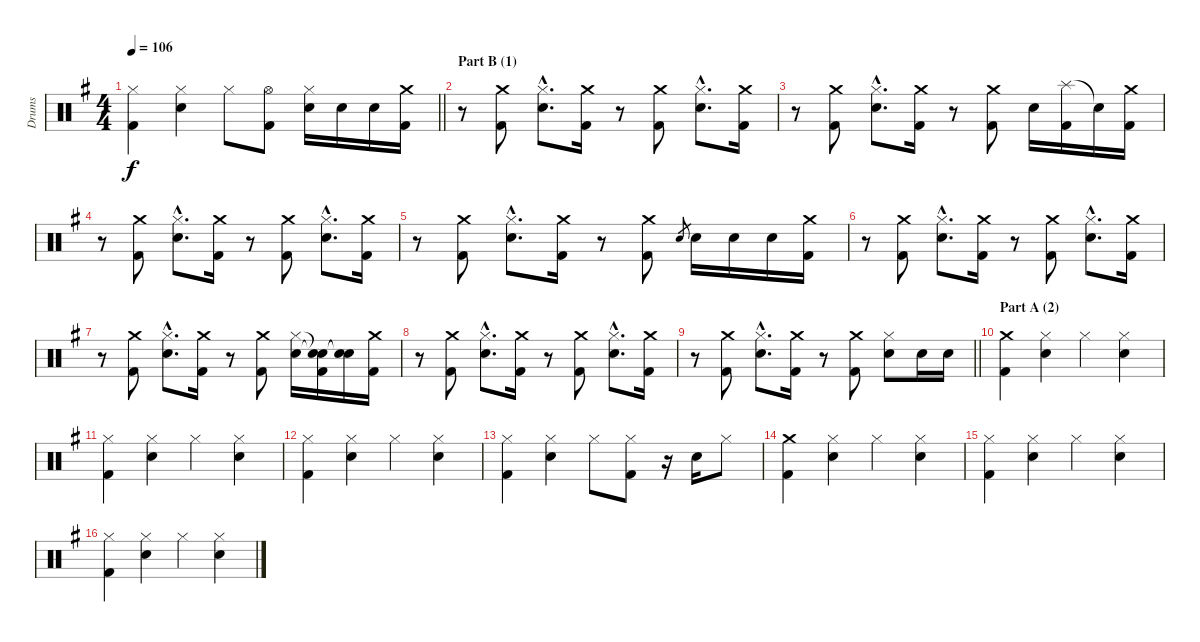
\track ("Drums" "Drums") {instrument percussion}
\staff {score}
\articulation defaults
\ts (4 4)
\tempo 106
\clef neutral
\barLineRight lightlight
\ks g
("Hi-Hat (closed)" "Kick (hit) 2").4{dy f} ("Hi-Hat (closed)" "Electric Snare (hit)").4 "Hi-Hat (closed)".8 ("Hi-Hat (open)" "Kick (hit) 2").8 ("Hi-Hat (closed)" "Electric Snare (hit)").16 "Electric Snare (hit)".16 "Electric Snare (hit)".16 ("Crash medium (hit)" "Kick (hit) 2").16 |
\section ("" "Part B (1)")
r.8 ("Crash medium (hit)" "Kick (hit) 2").8 ("Hi-Hat (closed)"{hac} "Electric Snare (hit)"{hac}).8{d} ("Crash medium (hit)" "Kick (hit) 2").16 r.8 ("Crash medium (hit)" "Kick (hit) 2").8 ("Hi-Hat (closed)"{hac} "Electric Snare (hit)"{hac}).8{d} ("Crash medium (hit)" "Kick (hit) 2").16 |
r.8 ("Crash medium (hit)" "Kick (hit) 2").8 ("Hi-Hat (closed)"{hac} "Electric Snare (hit)"{hac}).8{d} ("Crash medium (hit)" "Kick (hit) 2").16 r.8 ("Crash medium (hit)" "Kick (hit) 2").8 "Electric Snare (hit)".16 ("Splash (hit)" "Kick (hit) 2").16 "Snare (hit)"{t}.16 ("Crash medium (hit)" "Kick (hit) 2").16 |
r.8 ("Crash medium (hit)" "Kick (hit) 2").8 ("Hi-Hat (closed)"{hac} "Electric Snare (hit)"{hac}).8{d} ("Crash medium (hit)" "Kick (hit) 2").16 r.8 ("Crash medium (hit)" "Kick (hit) 2").8 ("Hi-Hat (closed)"{hac} "Electric Snare (hit)"{hac}).8{d} ("Crash medium (hit)" "Kick (hit) 2").16 |
r.8 ("Crash medium (hit)" "Kick (hit) 2").8 ("Hi-Hat (closed)"{hac} "Electric Snare (hit)"{hac}).8{d} ("Crash medium (hit)" "Kick (hit) 2").16 r.8 ("Crash medium (hit)" "Kick (hit) 2").8 "Electric Snare (hit)".8{gr} "Electric Snare (hit)".16 "Electric Snare (hit)".16 "Electric Snare (hit)".16 ("Crash medium (hit)" "Kick (hit) 2").16 |
r.8 ("Crash medium (hit)" "Kick (hit) 2").8 ("Hi-Hat (closed)"{hac} "Electric Snare (hit)"{hac}).8{d} ("Crash medium (hit)" "Kick (hit) 2").16 r.8 ("Crash medium (hit)" "Kick (hit) 2").8 ("Hi-Hat (closed)"{hac} "Electric Snare (hit)"{hac}).8{d} ("Crash medium (hit)" "Kick (hit) 2").16 |
r.8 ("Crash medium (hit)" "Kick (hit) 2").8 ("Hi-Hat (closed)"{hac} "Electric Snare (hit)"{hac}).8{d} ("Crash medium (hit)" "Kick (hit) 2").16 r.8 ("Crash medium (hit)" "Kick (hit) 2").8 ("Hi-Hat (closed)" "Electric Snare (hit)").16 ("Snare (hit)"{t} "Snare (hit)"{t} "Kick (hit) 2").16 ("Snare (hit)"{t} "Snare (hit)"{t}).16 ("Crash medium (hit)" "Kick (hit) 2").16 |
r.8 ("Crash medium (hit)" "Kick (hit) 2").8 ("Hi-Hat (closed)"{hac} "Electric Snare (hit)"{hac}).8{d} ("Crash medium (hit)" "Kick (hit) 2").16 r.8 ("Crash medium (hit)" "Kick (hit) 2").8 ("Hi-Hat (closed)"{hac} "Electric Snare (hit)"{hac}).8{d} ("Crash medium (hit)" "Kick (hit) 2").16 |
\barLineRight lightlight
r.8 ("Crash medium (hit)" "Kick (hit) 2").8 ("Hi-Hat (closed)"{hac} "Electric Snare (hit)"{hac}).8{d} ("Crash medium (hit)" "Kick (hit) 2").16 r.8 ("Crash medium (hit)" "Kick (hit) 2").8 ("Hi-Hat (closed)" "Electric Snare (hit)").8 "Electric Snare (hit)".16 "Electric Snare (hit)".16 |
\section ("" "Part A (2)")
("Crash medium (hit)" "Kick (hit) 2").4 ("Hi-Hat (closed)" "Electric Snare (hit)").4 "Hi-Hat (closed)".4 ("Hi-Hat (closed)" "Electric Snare (hit)").4 |
("Hi-Hat (closed)" "Kick (hit) 2").4 ("Hi-Hat (closed)" "Electric Snare (hit)").4 "Hi-Hat (closed)".4 ("Hi-Hat (closed)" "Electric Snare (hit)").4 |
("Hi-Hat (closed)" "Kick (hit) 2").4 ("Hi-Hat (closed)" "Electric Snare (hit)").4 "Hi-Hat (closed)".4 ("Hi-Hat (closed)" "Electric Snare (hit)").4 |
("Hi-Hat (closed)" "Kick (hit) 2").4 ("Hi-Hat (closed)" "Electric Snare (hit)").4 "Hi-Hat (closed)".8 ("Hi-Hat (closed)" "Kick (hit) 2").8 r.16 "Electric Snare (hit)".16 "Hi-Hat (closed)".8 |
("Crash medium (hit)" "Kick (hit) 2").4 ("Hi-Hat (closed)" "Electric Snare (hit)").4 "Hi-Hat (closed)".4 ("Hi-Hat (closed)" "Electric Snare (hit)").4 |
("Hi-Hat (closed)" "Kick (hit) 2").4 ("Hi-Hat (closed)" "Electric Snare (hit)").4 "Hi-Hat (closed)".4 ("Hi-Hat (closed)" "Electric Snare (hit)").4 |
("Hi-Hat (closed)" "Kick (hit) 2").4 ("Hi-Hat (closed)" "Electric Snare (hit)").4 "Hi-Hat (closed)".4 ("Hi-Hat (closed)" "Electric Snare (hit)").4
